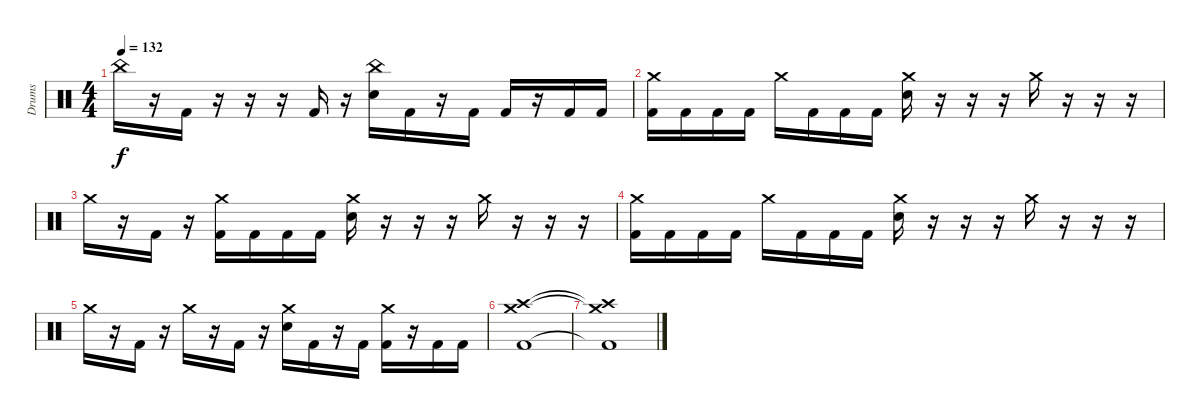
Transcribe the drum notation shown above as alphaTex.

\track ("Drums" "Drums") {instrument percussion}
\staff {score}
\articulation defaults
\ts (4 4)
\tempo 132
\clef neutral
\ks c "China (hit)".16{dy f}
r.16 "Kick (hit) 2".16 r.16 r.16 r.16 "Kick (hit) 2".16 r.16 ("China (hit)" "Electric Snare (hit)").16 "Kick (hit) 2".16 r.16 "Kick (hit) 2".16 "Kick (hit) 2".16 r.16 "Kick (hit) 2".16 "Kick (hit) 2".16 |
("Crash medium (hit)" "Kick (hit) 2").16 "Kick (hit) 2".16 "Kick (hit) 2".16 "Kick (hit) 2".16 "Crash medium (hit)".16 "Kick (hit) 2".16 "Kick (hit) 2".16 "Kick (hit) 2".16 ("Crash medium (hit)" "Electric Snare (hit)").16 r.16 r.16 r.16 "Crash medium (hit)".16 r.16 r.16 r.16 |
"Crash medium (hit)".16 r.16 "Kick (hit) 2".16 r.16 ("Crash medium (hit)" "Kick (hit) 2").16 "Kick (hit) 2".16 "Kick (hit) 2".16 "Kick (hit) 2".16 ("Crash medium (hit)" "Electric Snare (hit)").16 r.16 r.16 r.16 "Crash medium (hit)".16 r.16 r.16 r.16 |
("Crash medium (hit)" "Kick (hit) 2").16 "Kick (hit) 2".16 "Kick (hit) 2".16 "Kick (hit) 2".16 "Crash medium (hit)".16 "Kick (hit) 2".16 "Kick (hit) 2".16 "Kick (hit) 2".16 ("Crash medium (hit)" "Electric Snare (hit)").16 r.16 r.16 r.16 "Crash medium (hit)".16 r.16 r.16 r.16 |
"Crash medium (hit)".16 r.16 "Kick (hit) 2".16 r.16 "Crash medium (hit)".16 r.16 "Kick (hit) 2".16 r.16 ("Crash medium (hit)" "Electric Snare (hit)").16 "Kick (hit) 2".16 r.16 "Kick (hit) 2".16 ("Crash medium (hit)" "Kick (hit) 2").16 r.16 "Kick (hit) 2".16 "Kick (hit) 2".16 |
("Crash medium (hit)" "Crash high (hit)" "Kick (hit) 2").1 |
("Crash medium (hit)"{t} "Crash high (hit)"{t} "Kick (hit) 2"{t}).1
